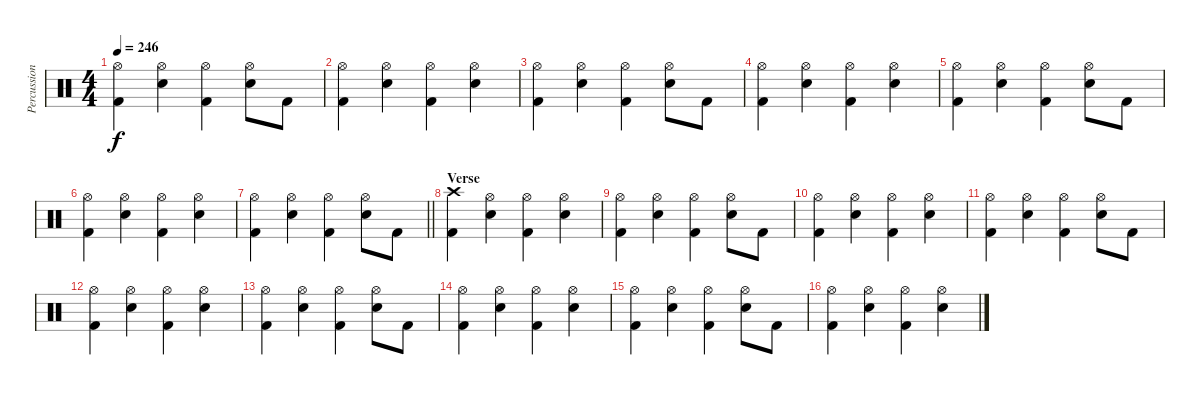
\track ("Percussions" "Percussion") {instrument percussion}
\staff {score}
\articulation defaults
\ts (4 4)
\tempo 246
\clef neutral
\ks c
("Hi-Hat (open)" "Kick (hit) 2").4{dy f} ("Hi-Hat (open)" "Electric Snare (hit)").4 ("Hi-Hat (open)" "Kick (hit) 2").4 ("Hi-Hat (open)" "Electric Snare (hit)").8 "Kick (hit) 2".8 |
("Hi-Hat (open)" "Kick (hit) 2").4 ("Hi-Hat (open)" "Electric Snare (hit)").4 ("Hi-Hat (open)" "Kick (hit) 2").4 ("Hi-Hat (open)" "Electric Snare (hit)").4 |
("Hi-Hat (open)" "Kick (hit) 2").4 ("Hi-Hat (open)" "Electric Snare (hit)").4 ("Hi-Hat (open)" "Kick (hit) 2").4 ("Hi-Hat (open)" "Electric Snare (hit)").8 "Kick (hit) 2".8 |
("Hi-Hat (open)" "Kick (hit) 2").4 ("Hi-Hat (open)" "Electric Snare (hit)").4 ("Hi-Hat (open)" "Kick (hit) 2").4 ("Hi-Hat (open)" "Electric Snare (hit)").4 |
("Hi-Hat (open)" "Kick (hit) 2").4 ("Hi-Hat (open)" "Electric Snare (hit)").4 ("Hi-Hat (open)" "Kick (hit) 2").4 ("Hi-Hat (open)" "Electric Snare (hit)").8 "Kick (hit) 2".8 |
("Hi-Hat (open)" "Kick (hit) 2").4 ("Hi-Hat (open)" "Electric Snare (hit)").4 ("Hi-Hat (open)" "Kick (hit) 2").4 ("Hi-Hat (open)" "Electric Snare (hit)").4 |
\barLineRight lightlight
("Hi-Hat (open)" "Kick (hit) 2").4 ("Hi-Hat (open)" "Electric Snare (hit)").4 ("Hi-Hat (open)" "Kick (hit) 2").4 ("Hi-Hat (open)" "Electric Snare (hit)").8 "Kick (hit) 2".8 |
\section ("" "Verse")
("Crash high (hit)" "Kick (hit) 2").4 ("Hi-Hat (open)" "Electric Snare (hit)").4 ("Hi-Hat (open)" "Kick (hit) 2").4 ("Hi-Hat (open)" "Electric Snare (hit)").4 |
("Hi-Hat (open)" "Kick (hit) 2").4 ("Hi-Hat (open)" "Electric Snare (hit)").4 ("Hi-Hat (open)" "Kick (hit) 2").4 ("Hi-Hat (open)" "Electric Snare (hit)").8 "Kick (hit) 2".8 |
("Hi-Hat (open)" "Kick (hit) 2").4 ("Hi-Hat (open)" "Electric Snare (hit)").4 ("Hi-Hat (open)" "Kick (hit) 2").4 ("Hi-Hat (open)" "Electric Snare (hit)").4 |
("Hi-Hat (open)" "Kick (hit) 2").4 ("Hi-Hat (open)" "Electric Snare (hit)").4 ("Hi-Hat (open)" "Kick (hit) 2").4 ("Hi-Hat (open)" "Electric Snare (hit)").8 "Kick (hit) 2".8 |
("Hi-Hat (open)" "Kick (hit) 2").4 ("Hi-Hat (open)" "Electric Snare (hit)").4 ("Hi-Hat (open)" "Kick (hit) 2").4 ("Hi-Hat (open)" "Electric Snare (hit)").4 |
("Hi-Hat (open)" "Kick (hit) 2").4 ("Hi-Hat (open)" "Electric Snare (hit)").4 ("Hi-Hat (open)" "Kick (hit) 2").4 ("Hi-Hat (open)" "Electric Snare (hit)").8 "Kick (hit) 2".8 |
("Hi-Hat (open)" "Kick (hit) 2").4 ("Hi-Hat (open)" "Electric Snare (hit)").4 ("Hi-Hat (open)" "Kick (hit) 2").4 ("Hi-Hat (open)" "Electric Snare (hit)").4 |
("Hi-Hat (open)" "Kick (hit) 2").4 ("Hi-Hat (open)" "Electric Snare (hit)").4 ("Hi-Hat (open)" "Kick (hit) 2").4 ("Hi-Hat (open)" "Electric Snare (hit)").8 "Kick (hit) 2".8 |
("Hi-Hat (open)" "Kick (hit) 2").4 ("Hi-Hat (open)" "Electric Snare (hit)").4 ("Hi-Hat (open)" "Kick (hit) 2").4 ("Hi-Hat (open)" "Electric Snare (hit)").4
